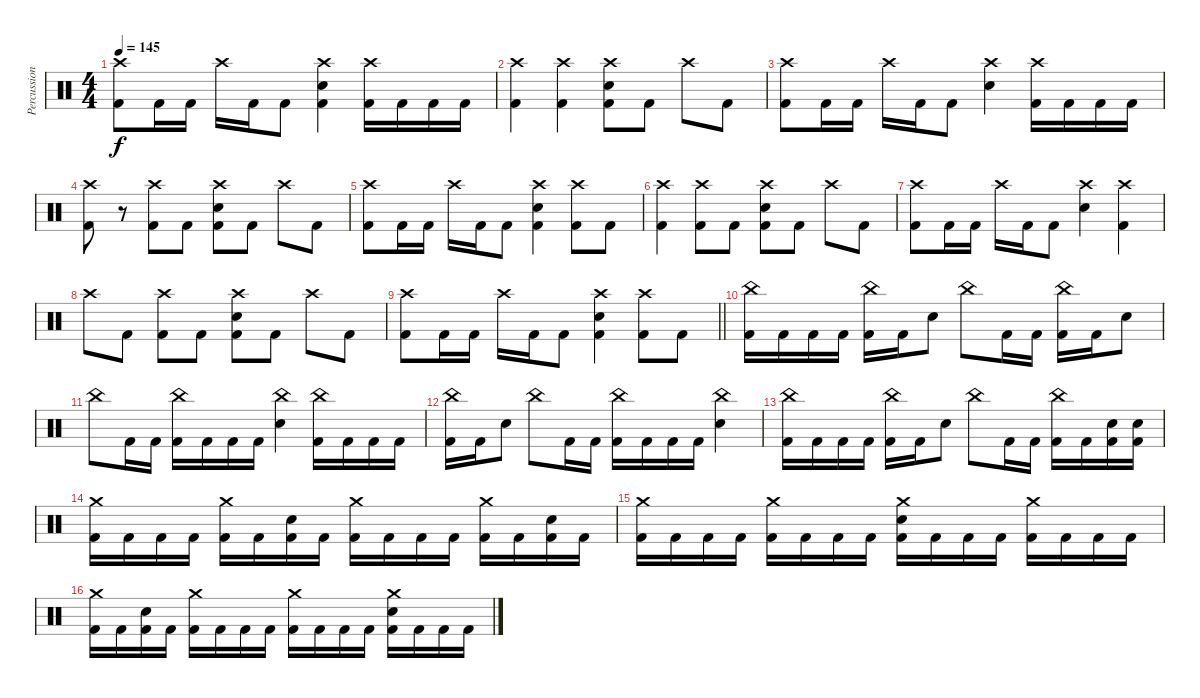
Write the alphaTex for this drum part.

\track ("Percussions" "Percussion") {instrument percussion}
\staff {score}
\articulation defaults
\ts (4 4)
\tempo 145
\clef neutral
\ks c
("Crash high (hit)" "Kick (hit) 2").8{dy f} "Kick (hit) 2".16 "Kick (hit) 2".16 "Crash high (hit)".16 "Kick (hit) 2".16 "Kick (hit) 2".8 ("Crash high (hit)" "Electric Snare (hit)" "Kick (hit) 2").4 ("Crash high (hit)" "Kick (hit) 2").16 "Kick (hit) 2".16 "Kick (hit) 2".16 "Kick (hit) 2".16 |
("Crash high (hit)" "Kick (hit) 2").4 ("Crash high (hit)" "Kick (hit) 2").4 ("Crash high (hit)" "Electric Snare (hit)" "Kick (hit) 2").8 "Kick (hit) 2".8 "Crash high (hit)".8 "Kick (hit) 2".8 |
("Crash high (hit)" "Kick (hit) 2").8 "Kick (hit) 2".16 "Kick (hit) 2".16 "Crash high (hit)".16 "Kick (hit) 2".16 "Kick (hit) 2".8 ("Crash high (hit)" "Electric Snare (hit)").4 ("Crash high (hit)" "Kick (hit) 2").16 "Kick (hit) 2".16 "Kick (hit) 2".16 "Kick (hit) 2".16 |
("Crash high (hit)" "Kick (hit) 2").8 r.8 ("Crash high (hit)" "Kick (hit) 2").8 "Kick (hit) 2".8 ("Crash high (hit)" "Electric Snare (hit)" "Kick (hit) 2").8 "Kick (hit) 2".8 "Crash high (hit)".8 "Kick (hit) 2".8 |
("Crash high (hit)" "Kick (hit) 2").8 "Kick (hit) 2".16 "Kick (hit) 2".16 "Crash high (hit)".16 "Kick (hit) 2".16 "Kick (hit) 2".8 ("Crash high (hit)" "Electric Snare (hit)" "Kick (hit) 2").4 ("Crash high (hit)" "Kick (hit) 2").8 "Kick (hit) 2".8 |
("Crash high (hit)" "Kick (hit) 2").4 ("Crash high (hit)" "Kick (hit) 2").8 "Kick (hit) 2".8 ("Crash high (hit)" "Electric Snare (hit)" "Kick (hit) 2").8 "Kick (hit) 2".8 "Crash high (hit)".8 "Kick (hit) 2".8 |
("Crash high (hit)" "Kick (hit) 2").8 "Kick (hit) 2".16 "Kick (hit) 2".16 "Crash high (hit)".16 "Kick (hit) 2".16 "Kick (hit) 2".8 ("Crash high (hit)" "Electric Snare (hit)").4 ("Crash high (hit)" "Kick (hit) 2").4 |
"Crash high (hit)".8 "Kick (hit) 2".8 ("Crash high (hit)" "Kick (hit) 2").8 "Kick (hit) 2".8 ("Crash high (hit)" "Electric Snare (hit)" "Kick (hit) 2").8 "Kick (hit) 2".8 "Crash high (hit)".8 "Kick (hit) 2".8 |
\barLineRight lightlight
("Crash high (hit)" "Kick (hit) 2").8 "Kick (hit) 2".16 "Kick (hit) 2".16 "Crash high (hit)".16 "Kick (hit) 2".16 "Kick (hit) 2".8 ("Crash high (hit)" "Electric Snare (hit)" "Kick (hit) 2").4 ("Crash high (hit)" "Kick (hit) 2").8 "Kick (hit) 2".8 |
\section ("" "")
("China (hit)" "Kick (hit) 2").16 "Kick (hit) 2".16 "Kick (hit) 2".16 "Kick (hit) 2".16 ("China (hit)" "Kick (hit) 2").16 "Kick (hit) 2".16 "Electric Snare (hit)".8 "China (hit)".8 "Kick (hit) 2".16 "Kick (hit) 2".16 ("China (hit)" "Kick (hit) 2").16 "Kick (hit) 2".16 "Electric Snare (hit)".8 |
"China (hit)".8 "Kick (hit) 2".16 "Kick (hit) 2".16 ("China (hit)" "Kick (hit) 2").16 "Kick (hit) 2".16 "Kick (hit) 2".16 "Kick (hit) 2".16 ("China (hit)" "Electric Snare (hit)").4 ("China (hit)" "Kick (hit) 2").16 "Kick (hit) 2".16 "Kick (hit) 2".16 "Kick (hit) 2".16 |
("China (hit)" "Kick (hit) 2").16 "Kick (hit) 2".16 "Electric Snare (hit)".8 "China (hit)".8 "Kick (hit) 2".16 "Kick (hit) 2".16 ("China (hit)" "Kick (hit) 2").16 "Kick (hit) 2".16 "Kick (hit) 2".16 "Kick (hit) 2".16 ("China (hit)" "Electric Snare (hit)").4 |
("China (hit)" "Kick (hit) 2").16 "Kick (hit) 2".16 "Kick (hit) 2".16 "Kick (hit) 2".16 ("China (hit)" "Kick (hit) 2").16 "Kick (hit) 2".16 "Electric Snare (hit)".8 "China (hit)".8 "Kick (hit) 2".16 "Kick (hit) 2".16 ("China (hit)" "Kick (hit) 2").16 "Kick (hit) 2".16 ("Electric Snare (hit)" "Kick (hit) 2").16 ("Electric Snare (hit)" "Kick (hit) 2").16 |
("Crash medium (hit)" "Kick (hit) 2").16 "Kick (hit) 2".16 "Kick (hit) 2".16 "Kick (hit) 2".16 ("Crash medium (hit)" "Kick (hit) 2").16 "Kick (hit) 2".16 ("Electric Snare (hit)" "Kick (hit) 2").16 "Kick (hit) 2".16 ("Crash medium (hit)" "Kick (hit) 2").16 "Kick (hit) 2".16 "Kick (hit) 2".16 "Kick (hit) 2".16 ("Crash medium (hit)" "Kick (hit) 2").16 "Kick (hit) 2".16 ("Electric Snare (hit)" "Kick (hit) 2").16 "Kick (hit) 2".16 |
("Crash medium (hit)" "Kick (hit) 2").16 "Kick (hit) 2".16 "Kick (hit) 2".16 "Kick (hit) 2".16 ("Crash medium (hit)" "Kick (hit) 2").16 "Kick (hit) 2".16 "Kick (hit) 2".16 "Kick (hit) 2".16 ("Crash medium (hit)" "Electric Snare (hit)" "Kick (hit) 2").16 "Kick (hit) 2".16 "Kick (hit) 2".16 "Kick (hit) 2".16 ("Crash medium (hit)" "Kick (hit) 2").16 "Kick (hit) 2".16 "Kick (hit) 2".16 "Kick (hit) 2".16 |
("Crash medium (hit)" "Kick (hit) 2").16 "Kick (hit) 2".16 ("Electric Snare (hit)" "Kick (hit) 2").16 "Kick (hit) 2".16 ("Crash medium (hit)" "Kick (hit) 2").16 "Kick (hit) 2".16 "Kick (hit) 2".16 "Kick (hit) 2".16 ("Crash medium (hit)" "Kick (hit) 2").16 "Kick (hit) 2".16 "Kick (hit) 2".16 "Kick (hit) 2".16 ("Crash medium (hit)" "Electric Snare (hit)" "Kick (hit) 2").16 "Kick (hit) 2".16 "Kick (hit) 2".16 "Kick (hit) 2".16
